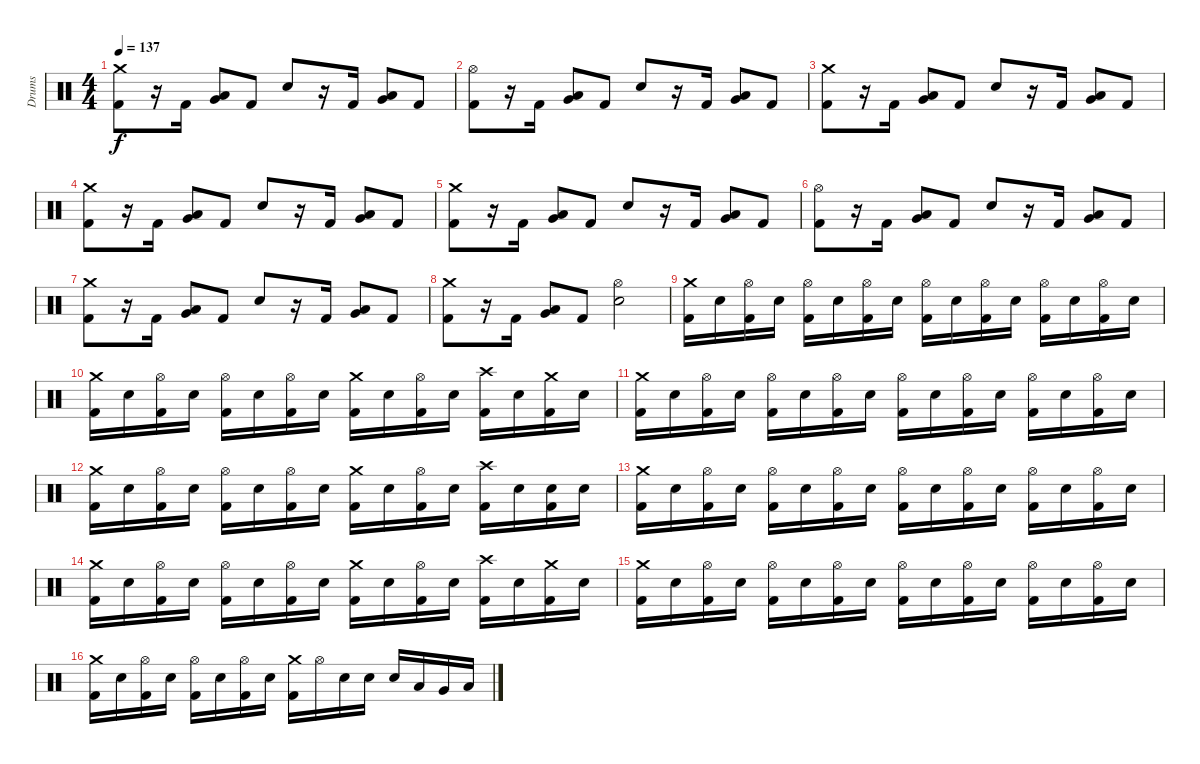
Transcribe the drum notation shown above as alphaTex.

\track ("Drums" "Drums") {instrument percussion}
\staff {score}
\articulation defaults
\ts (4 4)
\tempo 137
\clef neutral
\ks c
("Crash medium (hit)" "Kick (hit) 2").8{dy f} r.16 "Kick (hit) 2".16 ("Very Low Tom (hit)" "Low Tom (hit)").8 "Kick (hit) 2".8 "Electric Snare (hit)".8 r.16 "Kick (hit) 2".16 ("Very Low Tom (hit)" "Low Tom (hit)").8 "Kick (hit) 2".8 |
("Hi-Hat (open)" "Kick (hit) 2").8 r.16 "Kick (hit) 2".16 ("Very Low Tom (hit)" "Low Tom (hit)").8 "Kick (hit) 2".8 "Electric Snare (hit)".8 r.16 "Kick (hit) 2".16 ("Very Low Tom (hit)" "Low Tom (hit)").8 "Kick (hit) 2".8 |
("Crash medium (hit)" "Kick (hit) 2").8 r.16 "Kick (hit) 2".16 ("Very Low Tom (hit)" "Low Tom (hit)").8 "Kick (hit) 2".8 "Electric Snare (hit)".8 r.16 "Kick (hit) 2".16 ("Very Low Tom (hit)" "Low Tom (hit)").8 "Kick (hit) 2".8 |
("Crash medium (hit)" "Kick (hit) 2").8 r.16 "Kick (hit) 2".16 ("Very Low Tom (hit)" "Low Tom (hit)").8 "Kick (hit) 2".8 "Electric Snare (hit)".8 r.16 "Kick (hit) 2".16 ("Very Low Tom (hit)" "Low Tom (hit)").8 "Kick (hit) 2".8 |
("Crash medium (hit)" "Kick (hit) 2").8 r.16 "Kick (hit) 2".16 ("Very Low Tom (hit)" "Low Tom (hit)").8 "Kick (hit) 2".8 "Electric Snare (hit)".8 r.16 "Kick (hit) 2".16 ("Very Low Tom (hit)" "Low Tom (hit)").8 "Kick (hit) 2".8 |
("Hi-Hat (open)" "Kick (hit) 2").8 r.16 "Kick (hit) 2".16 ("Very Low Tom (hit)" "Low Tom (hit)").8 "Kick (hit) 2".8 "Electric Snare (hit)".8 r.16 "Kick (hit) 2".16 ("Very Low Tom (hit)" "Low Tom (hit)").8 "Kick (hit) 2".8 |
("Crash medium (hit)" "Kick (hit) 2").8 r.16 "Kick (hit) 2".16 ("Very Low Tom (hit)" "Low Tom (hit)").8 "Kick (hit) 2".8 "Electric Snare (hit)".8 r.16 "Kick (hit) 2".16 ("Very Low Tom (hit)" "Low Tom (hit)").8 "Kick (hit) 2".8 |
("Crash medium (hit)" "Kick (hit) 2").8 r.16 "Kick (hit) 2".16 ("Very Low Tom (hit)" "Low Tom (hit)").8 "Kick (hit) 2".8 ("Hi-Hat (open)" "Electric Snare (hit)").2 |
("Crash medium (hit)" "Kick (hit) 2").16 "Electric Snare (hit)".16 ("Hi-Hat (open)" "Kick (hit) 2").16 "Electric Snare (hit)".16 ("Hi-Hat (open)" "Kick (hit) 2").16 "Electric Snare (hit)".16 ("Hi-Hat (open)" "Kick (hit) 2").16 "Electric Snare (hit)".16 ("Hi-Hat (open)" "Kick (hit) 2").16 "Electric Snare (hit)".16 ("Hi-Hat (open)" "Kick (hit) 2").16 "Electric Snare (hit)".16 ("Hi-Hat (open)" "Kick (hit) 2").16 "Electric Snare (hit)".16 ("Hi-Hat (open)" "Kick (hit) 2").16 "Electric Snare (hit)".16 |
("Crash medium (hit)" "Kick (hit) 2").16 "Electric Snare (hit)".16 ("Hi-Hat (open)" "Kick (hit) 2").16 "Electric Snare (hit)".16 ("Hi-Hat (open)" "Kick (hit) 2").16 "Electric Snare (hit)".16 ("Hi-Hat (open)" "Kick (hit) 2").16 "Electric Snare (hit)".16 ("Crash medium (hit)" "Kick (hit) 2").16 "Electric Snare (hit)".16 ("Hi-Hat (open)" "Kick (hit) 2").16 "Electric Snare (hit)".16 ("Crash high (hit)" "Kick (hit) 2").16 "Electric Snare (hit)".16 ("Crash medium (hit)" "Kick (hit) 2").16 "Electric Snare (hit)".16 |
("Crash medium (hit)" "Kick (hit) 2").16 "Electric Snare (hit)".16 ("Hi-Hat (open)" "Kick (hit) 2").16 "Electric Snare (hit)".16 ("Hi-Hat (open)" "Kick (hit) 2").16 "Electric Snare (hit)".16 ("Hi-Hat (open)" "Kick (hit) 2").16 "Electric Snare (hit)".16 ("Hi-Hat (open)" "Kick (hit) 2").16 "Electric Snare (hit)".16 ("Hi-Hat (open)" "Kick (hit) 2").16 "Electric Snare (hit)".16 ("Hi-Hat (open)" "Kick (hit) 2").16 "Electric Snare (hit)".16 ("Hi-Hat (open)" "Kick (hit) 2").16 "Electric Snare (hit)".16 |
("Crash medium (hit)" "Kick (hit) 2").16 "Electric Snare (hit)".16 ("Hi-Hat (open)" "Kick (hit) 2").16 "Electric Snare (hit)".16 ("Hi-Hat (open)" "Kick (hit) 2").16 "Electric Snare (hit)".16 ("Hi-Hat (open)" "Kick (hit) 2").16 "Electric Snare (hit)".16 ("Crash medium (hit)" "Kick (hit) 2").16 "Electric Snare (hit)".16 ("Hi-Hat (open)" "Kick (hit) 2").16 "Electric Snare (hit)".16 ("Crash high (hit)" "Kick (hit) 2").16 "Electric Snare (hit)".16 ("Electric Snare (hit)" "Kick (hit) 2").16 "Electric Snare (hit)".16 |
("Crash medium (hit)" "Kick (hit) 2").16 "Electric Snare (hit)".16 ("Hi-Hat (open)" "Kick (hit) 2").16 "Electric Snare (hit)".16 ("Hi-Hat (open)" "Kick (hit) 2").16 "Electric Snare (hit)".16 ("Hi-Hat (open)" "Kick (hit) 2").16 "Electric Snare (hit)".16 ("Hi-Hat (open)" "Kick (hit) 2").16 "Electric Snare (hit)".16 ("Hi-Hat (open)" "Kick (hit) 2").16 "Electric Snare (hit)".16 ("Hi-Hat (open)" "Kick (hit) 2").16 "Electric Snare (hit)".16 ("Hi-Hat (open)" "Kick (hit) 2").16 "Electric Snare (hit)".16 |
("Crash medium (hit)" "Kick (hit) 2").16 "Electric Snare (hit)".16 ("Hi-Hat (open)" "Kick (hit) 2").16 "Electric Snare (hit)".16 ("Hi-Hat (open)" "Kick (hit) 2").16 "Electric Snare (hit)".16 ("Hi-Hat (open)" "Kick (hit) 2").16 "Electric Snare (hit)".16 ("Crash medium (hit)" "Kick (hit) 2").16 "Electric Snare (hit)".16 ("Hi-Hat (open)" "Kick (hit) 2").16 "Electric Snare (hit)".16 ("Crash high (hit)" "Kick (hit) 2").16 "Electric Snare (hit)".16 ("Crash medium (hit)" "Kick (hit) 2").16 "Electric Snare (hit)".16 |
("Crash medium (hit)" "Kick (hit) 2").16 "Electric Snare (hit)".16 ("Hi-Hat (open)" "Kick (hit) 2").16 "Electric Snare (hit)".16 ("Hi-Hat (open)" "Kick (hit) 2").16 "Electric Snare (hit)".16 ("Hi-Hat (open)" "Kick (hit) 2").16 "Electric Snare (hit)".16 ("Hi-Hat (open)" "Kick (hit) 2").16 "Electric Snare (hit)".16 ("Hi-Hat (open)" "Kick (hit) 2").16 "Electric Snare (hit)".16 ("Hi-Hat (open)" "Kick (hit) 2").16 "Electric Snare (hit)".16 ("Hi-Hat (open)" "Kick (hit) 2").16 "Electric Snare (hit)".16 |
("Crash medium (hit)" "Kick (hit) 2").16 "Electric Snare (hit)".16 ("Hi-Hat (open)" "Kick (hit) 2").16 "Electric Snare (hit)".16 ("Hi-Hat (open)" "Kick (hit) 2").16 "Electric Snare (hit)".16 ("Hi-Hat (open)" "Kick (hit) 2").16 "Electric Snare (hit)".16 ("Crash medium (hit)" "Kick (hit) 2").16 "Hi-Hat (open)".16 "Electric Snare (hit)".16 "Electric Snare (hit)".16 "Electric Snare (hit)".16 "Low Tom (hit)".16 "Very Low Tom (hit)".16 "Low Floor Tom (hit)".16
